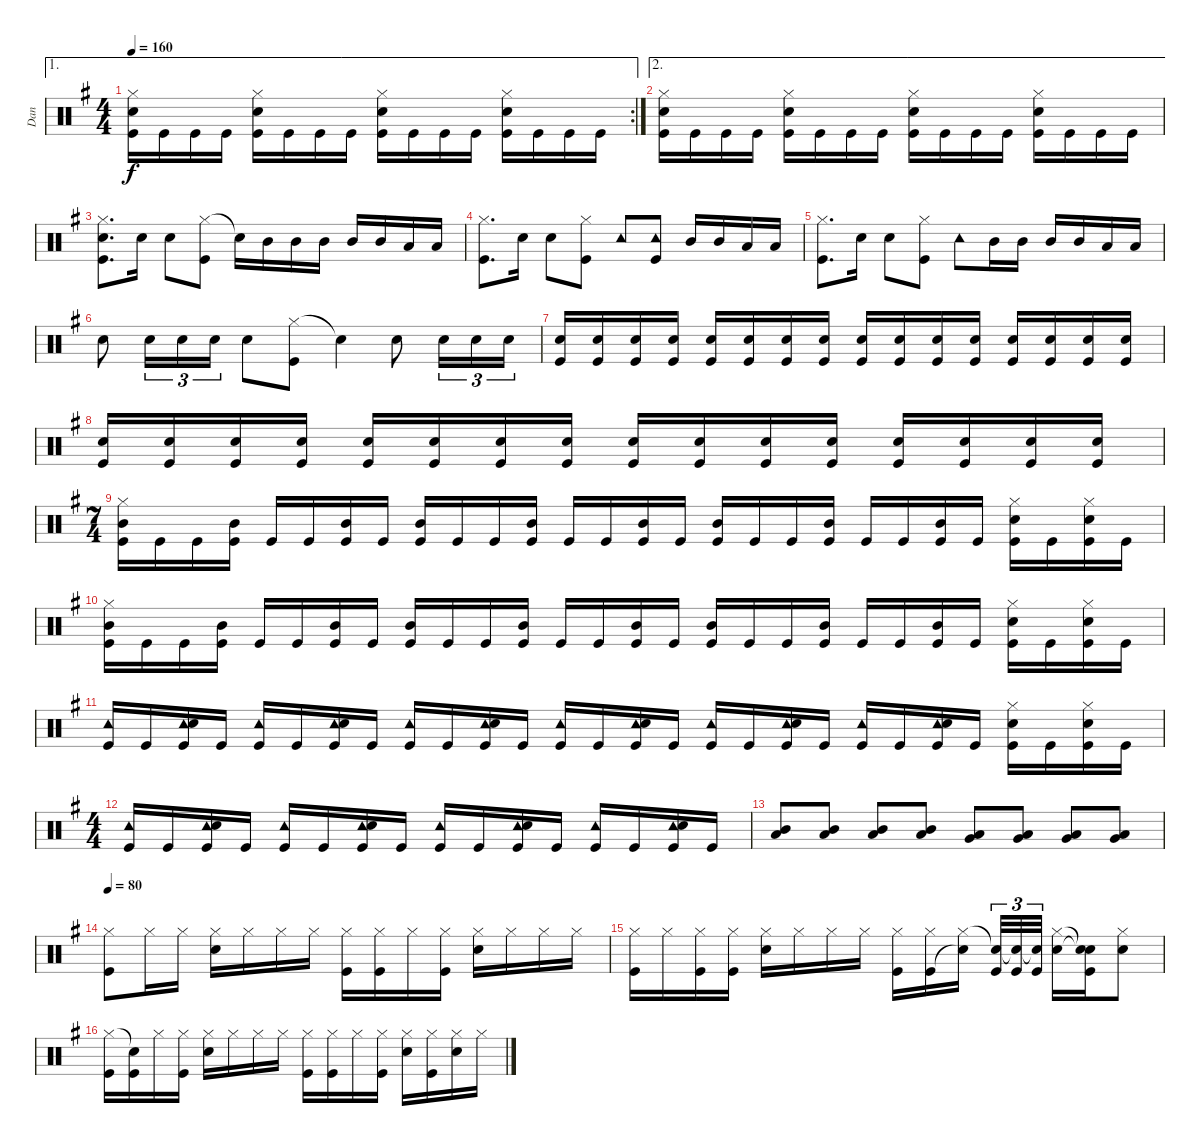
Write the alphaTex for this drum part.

\track ("Dan" "Dan") {instrument percussion}
\staff {score}
\articulation defaults
\ae 1
\rc 2
\ts (4 4)
\tempo 160
\clef neutral
\ks g
("Hi-Hat (closed)" "Snare (hit) 2" "Kick (hit)").16{dy f} "Kick (hit)".16 "Kick (hit)".16 "Kick (hit)".16 ("Hi-Hat (closed)" "Snare (hit) 2" "Kick (hit)").16 "Kick (hit)".16 "Kick (hit)".16 "Kick (hit)".16 ("Hi-Hat (closed)" "Snare (hit) 2" "Kick (hit)").16 "Kick (hit)".16 "Kick (hit)".16 "Kick (hit)".16 ("Hi-Hat (closed)" "Snare (hit) 2" "Kick (hit)").16 "Kick (hit)".16 "Kick (hit)".16 "Kick (hit)".16 |
\ae 2
("Hi-Hat (closed)" "Snare (hit) 2" "Kick (hit)").16 "Kick (hit)".16 "Kick (hit)".16 "Kick (hit)".16 ("Hi-Hat (closed)" "Snare (hit) 2" "Kick (hit)").16 "Kick (hit)".16 "Kick (hit)".16 "Kick (hit)".16 ("Hi-Hat (closed)" "Snare (hit) 2" "Kick (hit)").16 "Kick (hit)".16 "Kick (hit)".16 "Kick (hit)".16 ("Hi-Hat (closed)" "Snare (hit) 2" "Kick (hit)").16 "Kick (hit)".16 "Kick (hit)".16 "Kick (hit)".16 |
("Hi-Hat (closed)" "Snare (hit) 2" "Kick (hit)").8{d} "Snare (hit) 2".16 "Snare (hit) 2".8 ("Hi-Hat (closed)" "Kick (hit)").8 "Snare (hit)"{t}.16 "Mid Tom (hit)".16 "Mid Tom (hit)".16 "Mid Tom (hit)".16 "Mid Tom (hit)".16 "Mid Tom (hit)".16 "Low Tom (hit)".16 "Low Tom (hit)".16 |
("Hi-Hat (closed)" "Kick (hit)").8{d} "Snare (hit) 2".16 "Snare (hit) 2".8 ("Hi-Hat (closed)" "Kick (hit)").8 "Tambourine (hit)".8 ("Tambourine (hit)" "Kick (hit)").8 "Mid Tom (hit)".16 "Mid Tom (hit)".16 "Low Tom (hit)".16 "Low Tom (hit)".16 |
("Hi-Hat (closed)" "Kick (hit)").8{d} "Snare (hit) 2".16 "Snare (hit) 2".8 ("Hi-Hat (closed)" "Kick (hit)").8 "Tambourine (hit)".8 "Mid Tom (hit)".16 "Mid Tom (hit)".16 "Mid Tom (hit)".16 "Mid Tom (hit)".16 "Low Tom (hit)".16 "Low Tom (hit)".16 |
"Snare (hit) 2".8 "Snare (hit) 2".16{tu (3 2)} "Snare (hit) 2".16{tu (3 2)} "Snare (hit) 2".16{tu (3 2)} "Snare (hit) 2".8 ("Hi-Hat (closed)" "Kick (hit)").8 "Snare (hit)"{t}.4 "Snare (hit) 2".8 "Snare (hit) 2".16{tu (3 2)} "Snare (hit) 2".16{tu (3 2)} "Snare (hit) 2".16{tu (3 2)} |
("Snare (hit) 2" "Kick (hit)").16 ("Snare (hit) 2" "Kick (hit)").16 ("Snare (hit) 2" "Kick (hit)").16 ("Snare (hit) 2" "Kick (hit)").16 ("Snare (hit) 2" "Kick (hit)").16 ("Snare (hit) 2" "Kick (hit)").16 ("Snare (hit) 2" "Kick (hit)").16 ("Snare (hit) 2" "Kick (hit)").16 ("Snare (hit) 2" "Kick (hit)").16 ("Snare (hit) 2" "Kick (hit)").16 ("Snare (hit) 2" "Kick (hit)").16 ("Snare (hit) 2" "Kick (hit)").16 ("Snare (hit) 2" "Kick (hit)").16 ("Snare (hit) 2" "Kick (hit)").16 ("Snare (hit) 2" "Kick (hit)").16 ("Snare (hit) 2" "Kick (hit)").16 |
("Snare (hit) 2" "Kick (hit)").16 ("Snare (hit) 2" "Kick (hit)").16 ("Snare (hit) 2" "Kick (hit)").16 ("Snare (hit) 2" "Kick (hit)").16 ("Snare (hit) 2" "Kick (hit)").16 ("Snare (hit) 2" "Kick (hit)").16 ("Snare (hit) 2" "Kick (hit)").16 ("Snare (hit) 2" "Kick (hit)").16 ("Snare (hit) 2" "Kick (hit)").16 ("Snare (hit) 2" "Kick (hit)").16 ("Snare (hit) 2" "Kick (hit)").16 ("Snare (hit) 2" "Kick (hit)").16 ("Snare (hit) 2" "Kick (hit)").16 ("Snare (hit) 2" "Kick (hit)").16 ("Snare (hit) 2" "Kick (hit)").16 ("Snare (hit) 2" "Kick (hit)").16 |
\ts (7 4)
("Hi-Hat (closed)" "Mid Tom (hit)" "Kick (hit)").16 "Kick (hit)".16 "Kick (hit)".16 ("Mid Tom (hit)" "Kick (hit)").16 "Kick (hit)".16 "Kick (hit)".16 ("Mid Tom (hit)" "Kick (hit)").16 "Kick (hit)".16 ("Mid Tom (hit)" "Kick (hit)").16 "Kick (hit)".16 "Kick (hit)".16 ("Mid Tom (hit)" "Kick (hit)").16 "Kick (hit)".16 "Kick (hit)".16 ("Mid Tom (hit)" "Kick (hit)").16 "Kick (hit)".16 ("Mid Tom (hit)" "Kick (hit)").16 "Kick (hit)".16 "Kick (hit)".16 ("Mid Tom (hit)" "Kick (hit)").16 "Kick (hit)".16 "Kick (hit)".16 ("Mid Tom (hit)" "Kick (hit)").16 "Kick (hit)".16 ("Hi-Hat (closed)" "Snare (hit) 2" "Kick (hit)").16 "Kick (hit)".16 ("Hi-Hat (closed)" "Snare (hit) 2" "Kick (hit)").16 "Kick (hit)".16 |
("Hi-Hat (closed)" "Mid Tom (hit)" "Kick (hit)").16 "Kick (hit)".16 "Kick (hit)".16 ("Mid Tom (hit)" "Kick (hit)").16 "Kick (hit)".16 "Kick (hit)".16 ("Mid Tom (hit)" "Kick (hit)").16 "Kick (hit)".16 ("Mid Tom (hit)" "Kick (hit)").16 "Kick (hit)".16 "Kick (hit)".16 ("Mid Tom (hit)" "Kick (hit)").16 "Kick (hit)".16 "Kick (hit)".16 ("Mid Tom (hit)" "Kick (hit)").16 "Kick (hit)".16 ("Mid Tom (hit)" "Kick (hit)").16 "Kick (hit)".16 "Kick (hit)".16 ("Mid Tom (hit)" "Kick (hit)").16 "Kick (hit)".16 "Kick (hit)".16 ("Mid Tom (hit)" "Kick (hit)").16 "Kick (hit)".16 ("Hi-Hat (closed)" "Snare (hit) 2" "Kick (hit)").16 "Kick (hit)".16 ("Hi-Hat (closed)" "Snare (hit) 2" "Kick (hit)").16 "Kick (hit)".16 |
("Tambourine (hit)" "Kick (hit)").16 "Kick (hit)".16 ("Tambourine (hit)" "Snare (hit) 2" "Kick (hit)").16 "Kick (hit)".16 ("Tambourine (hit)" "Kick (hit)").16 "Kick (hit)".16 ("Tambourine (hit)" "Snare (hit) 2" "Kick (hit)").16 "Kick (hit)".16 ("Tambourine (hit)" "Kick (hit)").16 "Kick (hit)".16 ("Tambourine (hit)" "Snare (hit) 2" "Kick (hit)").16 "Kick (hit)".16 ("Tambourine (hit)" "Kick (hit)").16 "Kick (hit)".16 ("Tambourine (hit)" "Snare (hit) 2" "Kick (hit)").16 "Kick (hit)".16 ("Tambourine (hit)" "Kick (hit)").16 "Kick (hit)".16 ("Tambourine (hit)" "Snare (hit) 2" "Kick (hit)").16 "Kick (hit)".16 ("Tambourine (hit)" "Kick (hit)").16 "Kick (hit)".16 ("Tambourine (hit)" "Snare (hit) 2" "Kick (hit)").16 "Kick (hit)".16 ("Hi-Hat (closed)" "Snare (hit) 2" "Kick (hit)").16 "Kick (hit)".16 ("Hi-Hat (closed)" "Snare (hit) 2" "Kick (hit)").16 "Kick (hit)".16 |
\ts (4 4)
("Tambourine (hit)" "Kick (hit)").16 "Kick (hit)".16 ("Tambourine (hit)" "Snare (hit) 2" "Kick (hit)").16 "Kick (hit)".16 ("Tambourine (hit)" "Kick (hit)").16 "Kick (hit)".16 ("Tambourine (hit)" "Snare (hit) 2" "Kick (hit)").16 "Kick (hit)".16 ("Tambourine (hit)" "Kick (hit)").16 "Kick (hit)".16 ("Tambourine (hit)" "Snare (hit) 2" "Kick (hit)").16 "Kick (hit)".16 ("Tambourine (hit)" "Kick (hit)").16 "Kick (hit)".16 ("Tambourine (hit)" "Snare (hit) 2" "Kick (hit)").16 "Kick (hit)".16 |
("Mid Tom (hit)" "Low Tom (hit)").8 ("Mid Tom (hit)" "Low Tom (hit)").8 ("Mid Tom (hit)" "Low Tom (hit)").8 ("Mid Tom (hit)" "Low Tom (hit)").8 ("Low Tom (hit)" "Very Low Tom (hit)").8 ("Low Tom (hit)" "Very Low Tom (hit)").8 ("Low Tom (hit)" "Very Low Tom (hit)").8 ("Low Tom (hit)" "Very Low Tom (hit)").8 |
\tempo 80
("Hi-Hat (closed)" "Kick (hit)").8 "Hi-Hat (closed)".16 "Hi-Hat (closed)".16 ("Hi-Hat (closed)" "Snare (hit) 2").16 "Hi-Hat (closed)".16 "Hi-Hat (closed)".16 "Hi-Hat (closed)".16 ("Hi-Hat (closed)" "Kick (hit)").16 ("Hi-Hat (closed)" "Kick (hit)").16 "Hi-Hat (closed)".16 ("Hi-Hat (closed)" "Kick (hit)").16 ("Hi-Hat (closed)" "Snare (hit) 2").16 "Hi-Hat (closed)".16 "Hi-Hat (closed)".16 "Hi-Hat (closed)".16 |
("Hi-Hat (closed)" "Kick (hit)").16 "Hi-Hat (closed)".16 ("Hi-Hat (closed)" "Kick (hit)").16 ("Hi-Hat (closed)" "Kick (hit)").16 ("Hi-Hat (closed)" "Snare (hit) 2").16 "Hi-Hat (closed)".16 "Hi-Hat (closed)".16 "Hi-Hat (closed)".16 ("Hi-Hat (closed)" "Kick (hit)").16 ("Hi-Hat (closed)" "Kick (hit)").16 ("Hi-Hat (closed)" "Snare (hit)"{t}).16{beam splitsecondary} ("Snare (hit)"{t} "Kick (hit)").32{tu (3 2)} ("Snare (hit)"{t} "Kick (hit)").32{tu (3 2)} ("Snare (hit)"{t} "Kick (hit)").32{tu (3 2)} ("Hi-Hat (closed)" "Snare (hit) 2").16 ("Snare (hit)"{t} "Snare (hit)"{t} "Kick (hit)").16 ("Hi-Hat (closed)" "Snare (hit) 2").8 |
("Hi-Hat (closed)" "Kick (hit)").16 ("Snare (hit)"{t} "Kick (hit)").16 "Hi-Hat (closed)".16 ("Hi-Hat (closed)" "Kick (hit)").16 ("Hi-Hat (closed)" "Snare (hit) 2").16 "Hi-Hat (closed)".16 "Hi-Hat (closed)".16 "Hi-Hat (closed)".16 ("Hi-Hat (closed)" "Kick (hit)").16 ("Hi-Hat (closed)" "Kick (hit)").16 "Hi-Hat (closed)".16 ("Hi-Hat (closed)" "Kick (hit)").16 ("Hi-Hat (closed)" "Snare (hit) 2").16 ("Hi-Hat (closed)" "Kick (hit)").16 ("Hi-Hat (closed)" "Snare (hit) 2").16 "Hi-Hat (closed)".16
